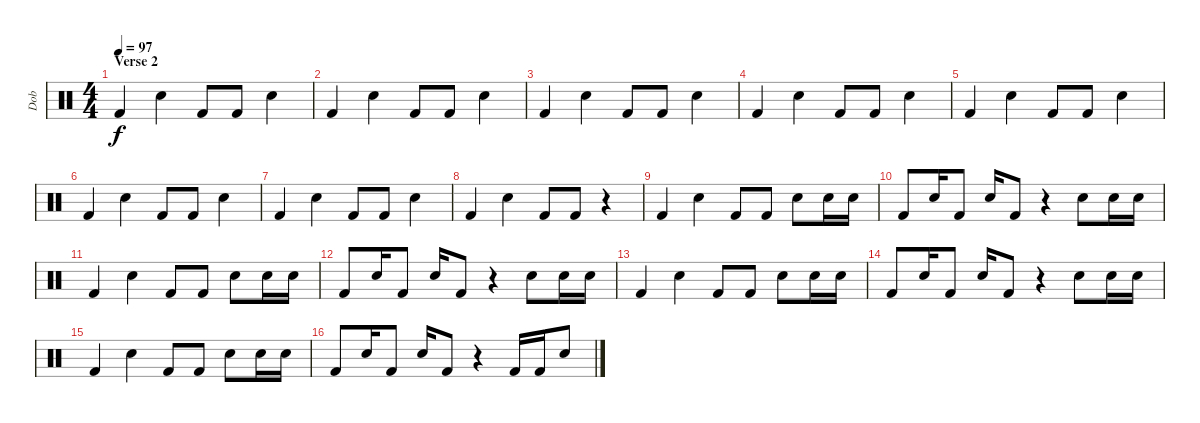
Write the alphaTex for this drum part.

\track ("Dob" "Dob") {instrument percussion}
\staff {score}
\articulation defaults
\ts (4 4)
\section ("" "Verse 2")
\tempo 97
\clef neutral
\ks c "Kick (hit) 2".4{dy f} "Snare (hit) 2".4 "Kick (hit) 2".8 "Kick (hit) 2".8 "Snare (hit) 2".4
|
"Kick (hit) 2".4 "Snare (hit) 2".4 "Kick (hit) 2".8 "Kick (hit) 2".8 "Snare (hit) 2".4 |
"Kick (hit) 2".4 "Snare (hit) 2".4 "Kick (hit) 2".8 "Kick (hit) 2".8 "Snare (hit) 2".4 |
"Kick (hit) 2".4 "Snare (hit) 2".4 "Kick (hit) 2".8 "Kick (hit) 2".8 "Snare (hit) 2".4 |
"Kick (hit) 2".4 "Snare (hit) 2".4 "Kick (hit) 2".8 "Kick (hit) 2".8 "Snare (hit) 2".4 |
"Kick (hit) 2".4 "Snare (hit) 2".4 "Kick (hit) 2".8 "Kick (hit) 2".8 "Snare (hit) 2".4 |
"Kick (hit) 2".4 "Snare (hit) 2".4 "Kick (hit) 2".8 "Kick (hit) 2".8 "Snare (hit) 2".4 |
"Kick (hit) 2".4 "Snare (hit) 2".4 "Kick (hit) 2".8 "Kick (hit) 2".8 r.4 |
"Kick (hit) 2".4 "Snare (hit) 2".4 "Kick (hit) 2".8 "Kick (hit) 2".8 "Snare (hit) 2".8 "Snare (hit) 2".16 "Snare (hit) 2".16 |
"Kick (hit) 2".8 "Snare (hit) 2".16 "Kick (hit) 2".8 "Snare (hit) 2".16 "Kick (hit) 2".8 r.4 "Snare (hit) 2".8 "Snare (hit) 2".16 "Snare (hit) 2".16 |
"Kick (hit) 2".4 "Snare (hit) 2".4 "Kick (hit) 2".8 "Kick (hit) 2".8 "Snare (hit) 2".8 "Snare (hit) 2".16 "Snare (hit) 2".16 |
"Kick (hit) 2".8 "Snare (hit) 2".16 "Kick (hit) 2".8 "Snare (hit) 2".16 "Kick (hit) 2".8 r.4 "Snare (hit) 2".8 "Snare (hit) 2".16 "Snare (hit) 2".16 |
"Kick (hit) 2".4 "Snare (hit) 2".4 "Kick (hit) 2".8 "Kick (hit) 2".8 "Snare (hit) 2".8 "Snare (hit) 2".16 "Snare (hit) 2".16 |
"Kick (hit) 2".8 "Snare (hit) 2".16 "Kick (hit) 2".8 "Snare (hit) 2".16 "Kick (hit) 2".8 r.4 "Snare (hit) 2".8 "Snare (hit) 2".16 "Snare (hit) 2".16 |
"Kick (hit) 2".4 "Snare (hit) 2".4 "Kick (hit) 2".8 "Kick (hit) 2".8 "Snare (hit) 2".8 "Snare (hit) 2".16 "Snare (hit) 2".16 |
"Kick (hit) 2".8 "Snare (hit) 2".16 "Kick (hit) 2".8 "Snare (hit) 2".16 "Kick (hit) 2".8 r.4 "Kick (hit) 2".16 "Kick (hit) 2".16 "Snare (hit) 2".8
